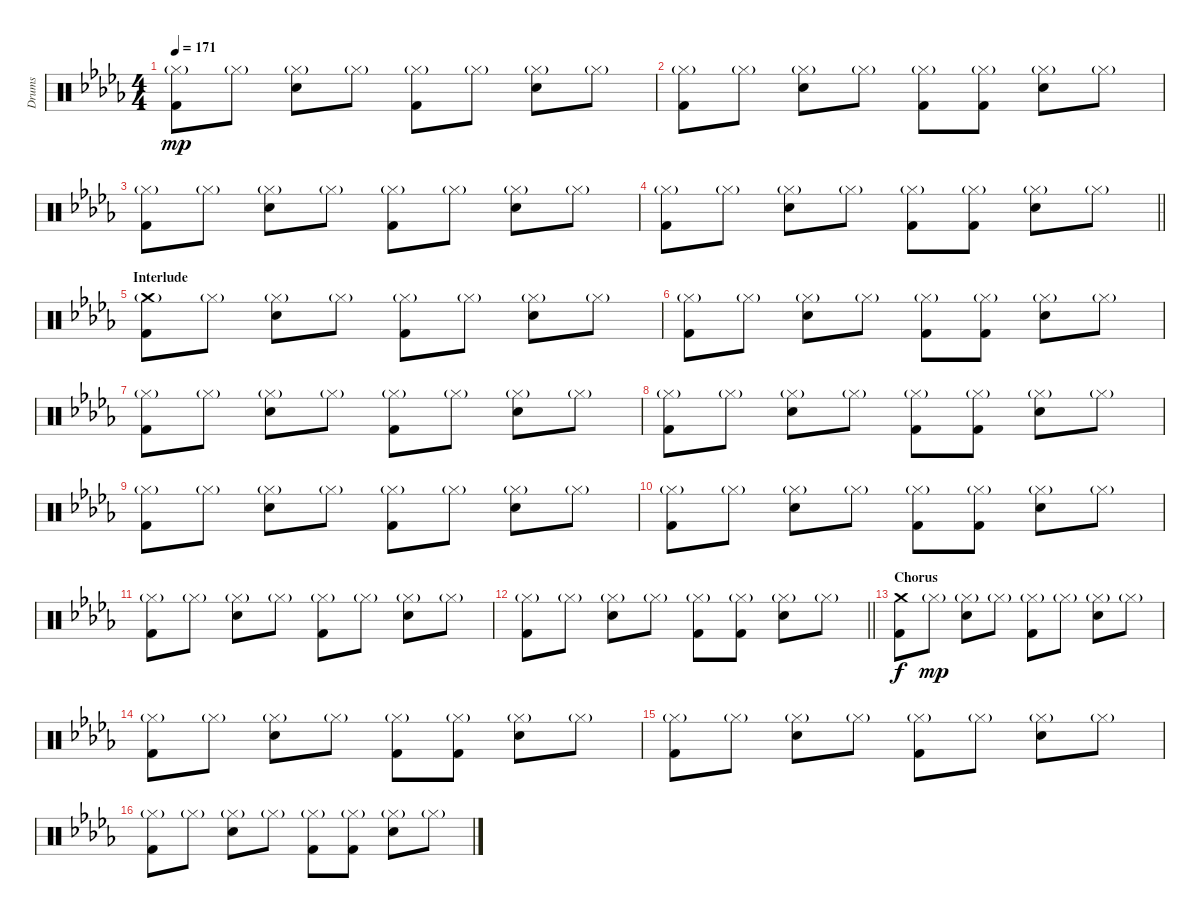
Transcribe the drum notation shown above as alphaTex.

\track ("Drums" "Drums") {instrument percussion}
\staff {score}
\articulation defaults
\ts (4 4)
\tempo 171
\clef neutral
\ks db
("Hi-Hat (closed)"{g} "Kick (hit) 2").8{dy mp} "Hi-Hat (closed)"{g}.8 ("Hi-Hat (closed)"{g} "Snare (hit) 2").8 "Hi-Hat (closed)"{g}.8 ("Hi-Hat (closed)"{g} "Kick (hit) 2").8 "Hi-Hat (closed)"{g}.8 ("Hi-Hat (closed)"{g} "Snare (hit) 2").8 "Hi-Hat (closed)"{g}.8 |
("Hi-Hat (closed)"{g} "Kick (hit) 2").8 "Hi-Hat (closed)"{g}.8 ("Hi-Hat (closed)"{g} "Snare (hit) 2").8 "Hi-Hat (closed)"{g}.8 ("Hi-Hat (closed)"{g} "Kick (hit) 2").8 ("Hi-Hat (closed)"{g} "Kick (hit) 2").8 ("Hi-Hat (closed)"{g} "Snare (hit) 2").8 "Hi-Hat (closed)"{g}.8 |
("Hi-Hat (closed)"{g} "Kick (hit) 2").8 "Hi-Hat (closed)"{g}.8 ("Hi-Hat (closed)"{g} "Snare (hit) 2").8 "Hi-Hat (closed)"{g}.8 ("Hi-Hat (closed)"{g} "Kick (hit) 2").8 "Hi-Hat (closed)"{g}.8 ("Hi-Hat (closed)"{g} "Snare (hit) 2").8 "Hi-Hat (closed)"{g}.8 |
\barLineRight lightlight
("Hi-Hat (closed)"{g} "Kick (hit) 2").8 "Hi-Hat (closed)"{g}.8 ("Hi-Hat (closed)"{g} "Snare (hit) 2").8 "Hi-Hat (closed)"{g}.8 ("Hi-Hat (closed)"{g} "Kick (hit) 2").8 ("Hi-Hat (closed)"{g} "Kick (hit) 2").8 ("Hi-Hat (closed)"{g} "Snare (hit) 2").8 "Hi-Hat (closed)"{g}.8 |
\section ("" "Interlude")
("Crash medium (hit)"{g} "Kick (hit) 2").8 "Hi-Hat (closed)"{g}.8 ("Hi-Hat (closed)"{g} "Snare (hit) 2").8 "Hi-Hat (closed)"{g}.8 ("Hi-Hat (closed)"{g} "Kick (hit) 2").8 "Hi-Hat (closed)"{g}.8 ("Hi-Hat (closed)"{g} "Snare (hit) 2").8 "Hi-Hat (closed)"{g}.8 |
("Hi-Hat (closed)"{g} "Kick (hit) 2").8 "Hi-Hat (closed)"{g}.8 ("Hi-Hat (closed)"{g} "Snare (hit) 2").8 "Hi-Hat (closed)"{g}.8 ("Hi-Hat (closed)"{g} "Kick (hit) 2").8 ("Hi-Hat (closed)"{g} "Kick (hit) 2").8 ("Hi-Hat (closed)"{g} "Snare (hit) 2").8 "Hi-Hat (closed)"{g}.8 |
("Hi-Hat (closed)"{g} "Kick (hit) 2").8 "Hi-Hat (closed)"{g}.8 ("Hi-Hat (closed)"{g} "Snare (hit) 2").8 "Hi-Hat (closed)"{g}.8 ("Hi-Hat (closed)"{g} "Kick (hit) 2").8 "Hi-Hat (closed)"{g}.8 ("Hi-Hat (closed)"{g} "Snare (hit) 2").8 "Hi-Hat (closed)"{g}.8 |
("Hi-Hat (closed)"{g} "Kick (hit) 2").8 "Hi-Hat (closed)"{g}.8 ("Hi-Hat (closed)"{g} "Snare (hit) 2").8 "Hi-Hat (closed)"{g}.8 ("Hi-Hat (closed)"{g} "Kick (hit) 2").8 ("Hi-Hat (closed)"{g} "Kick (hit) 2").8 ("Hi-Hat (closed)"{g} "Snare (hit) 2").8 "Hi-Hat (closed)"{g}.8 |
("Hi-Hat (closed)"{g} "Kick (hit) 2").8 "Hi-Hat (closed)"{g}.8 ("Hi-Hat (closed)"{g} "Snare (hit) 2").8 "Hi-Hat (closed)"{g}.8 ("Hi-Hat (closed)"{g} "Kick (hit) 2").8 "Hi-Hat (closed)"{g}.8 ("Hi-Hat (closed)"{g} "Snare (hit) 2").8 "Hi-Hat (closed)"{g}.8 |
("Hi-Hat (closed)"{g} "Kick (hit) 2").8 "Hi-Hat (closed)"{g}.8 ("Hi-Hat (closed)"{g} "Snare (hit) 2").8 "Hi-Hat (closed)"{g}.8 ("Hi-Hat (closed)"{g} "Kick (hit) 2").8 ("Hi-Hat (closed)"{g} "Kick (hit) 2").8 ("Hi-Hat (closed)"{g} "Snare (hit) 2").8 "Hi-Hat (closed)"{g}.8 |
("Hi-Hat (closed)"{g} "Kick (hit) 2").8 "Hi-Hat (closed)"{g}.8 ("Hi-Hat (closed)"{g} "Snare (hit) 2").8 "Hi-Hat (closed)"{g}.8 ("Hi-Hat (closed)"{g} "Kick (hit) 2").8 "Hi-Hat (closed)"{g}.8 ("Hi-Hat (closed)"{g} "Snare (hit) 2").8 "Hi-Hat (closed)"{g}.8 |
\barLineRight lightlight
("Hi-Hat (closed)"{g} "Kick (hit) 2").8 "Hi-Hat (closed)"{g}.8 ("Hi-Hat (closed)"{g} "Snare (hit) 2").8 "Hi-Hat (closed)"{g}.8 ("Hi-Hat (closed)"{g} "Kick (hit) 2").8 ("Hi-Hat (closed)"{g} "Kick (hit) 2").8 ("Hi-Hat (closed)"{g} "Snare (hit) 2").8 "Hi-Hat (closed)"{g}.8 |
\section ("" "Chorus")
("Crash medium (hit)" "Kick (hit) 2").8{dy f} "Hi-Hat (closed)"{g}.8{dy mp} ("Hi-Hat (closed)"{g} "Snare (hit) 2").8 "Hi-Hat (closed)"{g}.8 ("Hi-Hat (closed)"{g} "Kick (hit) 2").8 "Hi-Hat (closed)"{g}.8 ("Hi-Hat (closed)"{g} "Snare (hit) 2").8 "Hi-Hat (closed)"{g}.8 |
("Hi-Hat (closed)"{g} "Kick (hit) 2").8 "Hi-Hat (closed)"{g}.8 ("Hi-Hat (closed)"{g} "Snare (hit) 2").8 "Hi-Hat (closed)"{g}.8 ("Hi-Hat (closed)"{g} "Kick (hit) 2").8 ("Hi-Hat (closed)"{g} "Kick (hit) 2").8 ("Hi-Hat (closed)"{g} "Snare (hit) 2").8 "Hi-Hat (closed)"{g}.8 |
("Hi-Hat (closed)"{g} "Kick (hit) 2").8 "Hi-Hat (closed)"{g}.8 ("Hi-Hat (closed)"{g} "Snare (hit) 2").8 "Hi-Hat (closed)"{g}.8 ("Hi-Hat (closed)"{g} "Kick (hit) 2").8 "Hi-Hat (closed)"{g}.8 ("Hi-Hat (closed)"{g} "Snare (hit) 2").8 "Hi-Hat (closed)"{g}.8 |
("Hi-Hat (closed)"{g} "Kick (hit) 2").8 "Hi-Hat (closed)"{g}.8 ("Hi-Hat (closed)"{g} "Snare (hit) 2").8 "Hi-Hat (closed)"{g}.8 ("Hi-Hat (closed)"{g} "Kick (hit) 2").8 ("Hi-Hat (closed)"{g} "Kick (hit) 2").8 ("Hi-Hat (closed)"{g} "Snare (hit) 2").8 "Hi-Hat (closed)"{g}.8
